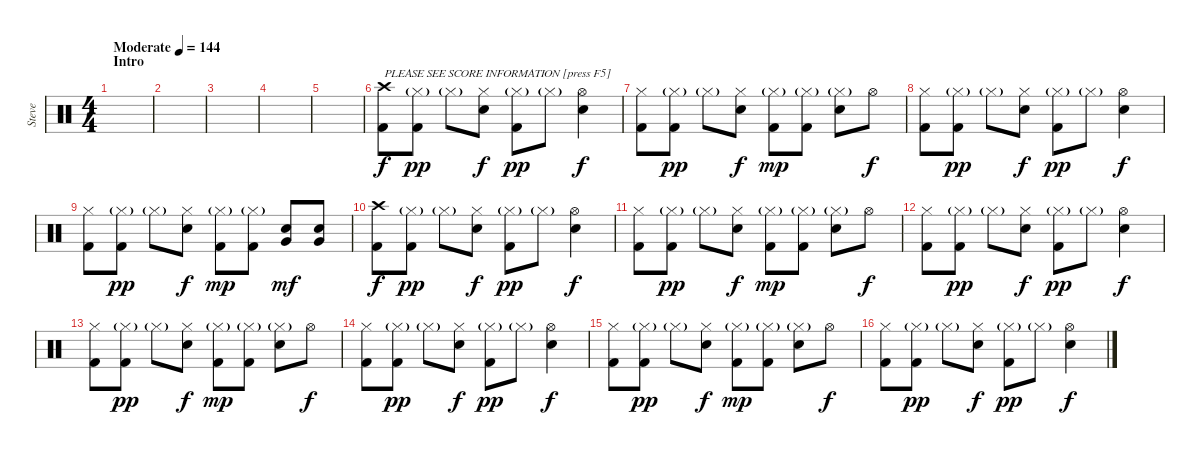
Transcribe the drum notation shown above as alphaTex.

\track ("Steve" "Steve") {instrument percussion}
\staff {score}
\articulation defaults
\ts (4 4)
\section ("" "Intro")
\tempo (144 "Moderate")
\clef neutral
\ks c
|
|
|
|
|
("Crash high (hit)" "Kick (hit) 2").8{txt "PLEASE SEE SCORE INFORMATION [press F5]"} ("Hi-Hat (closed)"{g} "Kick (hit) 2").8{dy pp} "Hi-Hat (closed)"{g}.8 ("Hi-Hat (closed)" "Electric Snare (hit)").8{dy f} ("Hi-Hat (closed)"{g} "Kick (hit) 2").8{dy pp} "Hi-Hat (closed)"{g}.8 ("Hi-Hat (open)" "Electric Snare (hit)").4{dy f} |
("Hi-Hat (closed)" "Kick (hit) 2").8 ("Hi-Hat (closed)"{g} "Kick (hit) 2").8{dy pp} "Hi-Hat (closed)"{g}.8 ("Hi-Hat (closed)" "Electric Snare (hit)").8{dy f} ("Hi-Hat (closed)"{g} "Kick (hit) 2").8{dy mp} ("Hi-Hat (closed)"{g} "Kick (hit) 2").8 ("Hi-Hat (closed)"{g} "Electric Snare (hit)").8 "Hi-Hat (open)".8{dy f} |
("Hi-Hat (closed)" "Kick (hit) 2").8 ("Hi-Hat (closed)"{g} "Kick (hit) 2").8{dy pp} "Hi-Hat (closed)"{g}.8 ("Hi-Hat (closed)" "Electric Snare (hit)").8{dy f} ("Hi-Hat (closed)"{g} "Kick (hit) 2").8{dy pp} "Hi-Hat (closed)"{g}.8 ("Hi-Hat (open)" "Electric Snare (hit)").4{dy f} |
("Hi-Hat (closed)" "Kick (hit) 2").8 ("Hi-Hat (closed)"{g} "Kick (hit) 2").8{dy pp} "Hi-Hat (closed)"{g}.8 ("Hi-Hat (closed)" "Electric Snare (hit)").8{dy f} ("Hi-Hat (closed)"{g} "Kick (hit) 2").8{dy mp} ("Hi-Hat (closed)"{g} "Kick (hit) 2").8 ("Very Low Tom (hit)" "Electric Snare (hit)").8{dy mf} ("Very Low Tom (hit)" "Electric Snare (hit)").8 |
("Crash high (hit)" "Kick (hit) 2").8{dy f} ("Hi-Hat (closed)"{g} "Kick (hit) 2").8{dy pp} "Hi-Hat (closed)"{g}.8 ("Hi-Hat (closed)" "Electric Snare (hit)").8{dy f} ("Hi-Hat (closed)"{g} "Kick (hit) 2").8{dy pp} "Hi-Hat (closed)"{g}.8 ("Hi-Hat (open)" "Electric Snare (hit)").4{dy f} |
("Hi-Hat (closed)" "Kick (hit) 2").8 ("Hi-Hat (closed)"{g} "Kick (hit) 2").8{dy pp} "Hi-Hat (closed)"{g}.8 ("Hi-Hat (closed)" "Electric Snare (hit)").8{dy f} ("Hi-Hat (closed)"{g} "Kick (hit) 2").8{dy mp} ("Hi-Hat (closed)"{g} "Kick (hit) 2").8 ("Hi-Hat (closed)"{g} "Electric Snare (hit)").8 "Hi-Hat (open)".8{dy f} |
("Hi-Hat (closed)" "Kick (hit) 2").8 ("Hi-Hat (closed)"{g} "Kick (hit) 2").8{dy pp} "Hi-Hat (closed)"{g}.8 ("Hi-Hat (closed)" "Electric Snare (hit)").8{dy f} ("Hi-Hat (closed)"{g} "Kick (hit) 2").8{dy pp} "Hi-Hat (closed)"{g}.8 ("Hi-Hat (open)" "Electric Snare (hit)").4{dy f} |
("Hi-Hat (closed)" "Kick (hit) 2").8 ("Hi-Hat (closed)"{g} "Kick (hit) 2").8{dy pp} "Hi-Hat (closed)"{g}.8 ("Hi-Hat (closed)" "Electric Snare (hit)").8{dy f} ("Hi-Hat (closed)"{g} "Kick (hit) 2").8{dy mp} ("Hi-Hat (closed)"{g} "Kick (hit) 2").8 ("Hi-Hat (closed)"{g} "Electric Snare (hit)").8 "Hi-Hat (open)".8{dy f} |
("Hi-Hat (closed)" "Kick (hit) 2").8 ("Hi-Hat (closed)"{g} "Kick (hit) 2").8{dy pp} "Hi-Hat (closed)"{g}.8 ("Hi-Hat (closed)" "Electric Snare (hit)").8{dy f} ("Hi-Hat (closed)"{g} "Kick (hit) 2").8{dy pp} "Hi-Hat (closed)"{g}.8 ("Hi-Hat (open)" "Electric Snare (hit)").4{dy f} |
("Hi-Hat (closed)" "Kick (hit) 2").8 ("Hi-Hat (closed)"{g} "Kick (hit) 2").8{dy pp} "Hi-Hat (closed)"{g}.8 ("Hi-Hat (closed)" "Electric Snare (hit)").8{dy f} ("Hi-Hat (closed)"{g} "Kick (hit) 2").8{dy mp} ("Hi-Hat (closed)"{g} "Kick (hit) 2").8 ("Hi-Hat (closed)"{g} "Electric Snare (hit)").8 "Hi-Hat (open)".8{dy f} |
("Hi-Hat (closed)" "Kick (hit) 2").8 ("Hi-Hat (closed)"{g} "Kick (hit) 2").8{dy pp} "Hi-Hat (closed)"{g}.8 ("Hi-Hat (closed)" "Electric Snare (hit)").8{dy f} ("Hi-Hat (closed)"{g} "Kick (hit) 2").8{dy pp} "Hi-Hat (closed)"{g}.8 ("Hi-Hat (open)" "Electric Snare (hit)").4{dy f}
